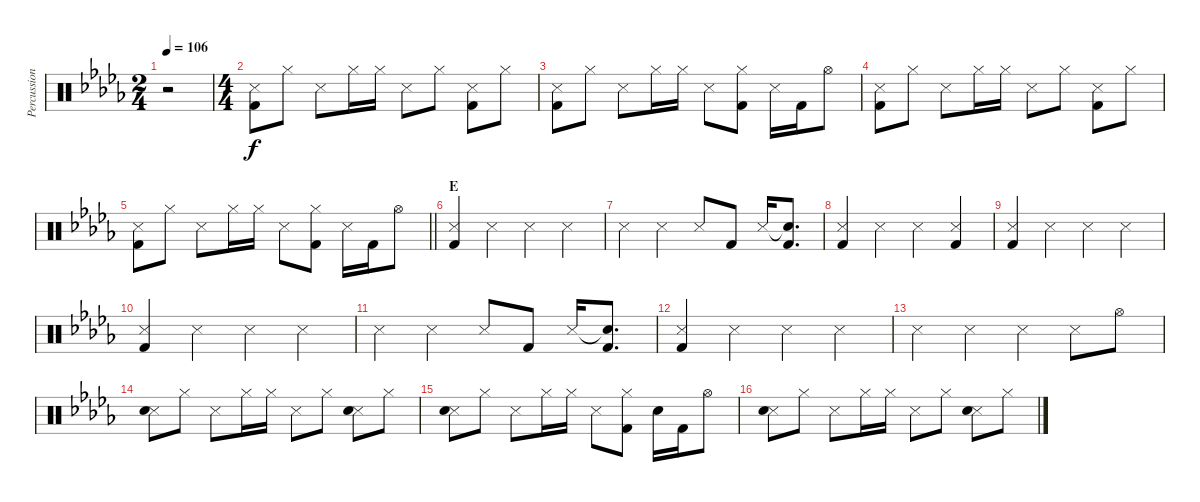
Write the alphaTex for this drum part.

\track ("Percussion" "Percussion") {instrument percussion}
\staff {score}
\articulation defaults
\ts (2 4)
\tempo 106
\clef neutral
\ks db
r.2{dy f} |
\ts (4 4)
("Snare (side stick) 3" "Kick (hit) 2").8 "Hi-Hat (closed)".8 "Snare (side stick) 3".8 "Hi-Hat (closed)".16 "Hi-Hat (closed)".16 "Snare (side stick) 3".8 "Hi-Hat (closed)".8 ("Snare (side stick) 3" "Kick (hit) 2").8 "Hi-Hat (closed)".8 |
("Snare (side stick) 3" "Kick (hit) 2").8 "Hi-Hat (closed)".8 "Snare (side stick) 3".8 "Hi-Hat (closed)".16 "Hi-Hat (closed)".16 "Snare (side stick) 3".8 ("Hi-Hat (closed)" "Kick (hit) 2").8 "Snare (side stick) 3".16 "Kick (hit) 2".16 "Hi-Hat (open)".8 |
("Snare (side stick) 3" "Kick (hit) 2").8 "Hi-Hat (closed)".8 "Snare (side stick) 3".8 "Hi-Hat (closed)".16 "Hi-Hat (closed)".16 "Snare (side stick) 3".8 "Hi-Hat (closed)".8 ("Snare (side stick) 3" "Kick (hit) 2").8 "Hi-Hat (closed)".8 |
\barLineRight lightlight
("Snare (side stick) 3" "Kick (hit) 2").8 "Hi-Hat (closed)".8 "Snare (side stick) 3".8 "Hi-Hat (closed)".16 "Hi-Hat (closed)".16 "Snare (side stick) 3".8 ("Hi-Hat (closed)" "Kick (hit) 2").8 "Snare (side stick) 3".16 "Kick (hit) 2".16 "Hi-Hat (open)".8 |
\section ("" "E")
("Snare (side stick) 3" "Kick (hit) 2").4 "Snare (side stick) 3".4 "Snare (side stick) 3".4 "Snare (side stick) 3".4 |
"Snare (side stick) 3".4 "Snare (side stick) 3".4 "Snare (side stick) 3".8 "Kick (hit) 2".8 "Snare (side stick) 3".16 ("Snare (hit)"{t} "Kick (hit) 2").8{d} |
("Snare (side stick) 3" "Kick (hit) 2").4 "Snare (side stick) 3".4 "Snare (side stick) 3".4 ("Snare (side stick) 3" "Kick (hit) 2").4 |
("Snare (side stick) 3" "Kick (hit) 2").4 "Snare (side stick) 3".4 "Snare (side stick) 3".4 "Snare (side stick) 3".4 |
("Snare (side stick) 3" "Kick (hit) 2").4 "Snare (side stick) 3".4 "Snare (side stick) 3".4 "Snare (side stick) 3".4 |
"Snare (side stick) 3".4 "Snare (side stick) 3".4 "Snare (side stick) 3".8 "Kick (hit) 2".8 "Snare (side stick) 3".16 ("Snare (hit)"{t} "Kick (hit) 2").8{d} |
("Snare (side stick) 3" "Kick (hit) 2").4 "Snare (side stick) 3".4 "Snare (side stick) 3".4 "Snare (side stick) 3".4 |
"Snare (side stick) 3".4 "Snare (side stick) 3".4 "Snare (side stick) 3".4 "Snare (side stick) 3".8 "Hi-Hat (open)".8 |
("Snare (side stick) 3" "Snare (hit)").8 "Hi-Hat (closed)".8 "Snare (side stick) 3".8 "Hi-Hat (closed)".16 "Hi-Hat (closed)".16 "Snare (side stick) 3".8 "Hi-Hat (closed)".8 ("Snare (side stick) 3" "Snare (hit)").8 "Hi-Hat (closed)".8 |
("Snare (side stick) 3" "Snare (hit)").8 "Hi-Hat (closed)".8 "Snare (side stick) 3".8 "Hi-Hat (closed)".16 "Hi-Hat (closed)".16 "Snare (side stick) 3".8 ("Hi-Hat (closed)" "Kick (hit) 2").8 "Electric Snare (hit)".16 "Kick (hit) 2".16 "Hi-Hat (open)".8 |
("Snare (side stick) 3" "Snare (hit)").8 "Hi-Hat (closed)".8 "Snare (side stick) 3".8 "Hi-Hat (closed)".16 "Hi-Hat (closed)".16 "Snare (side stick) 3".8 "Hi-Hat (closed)".8 ("Snare (side stick) 3" "Snare (hit)").8 "Hi-Hat (closed)".8
